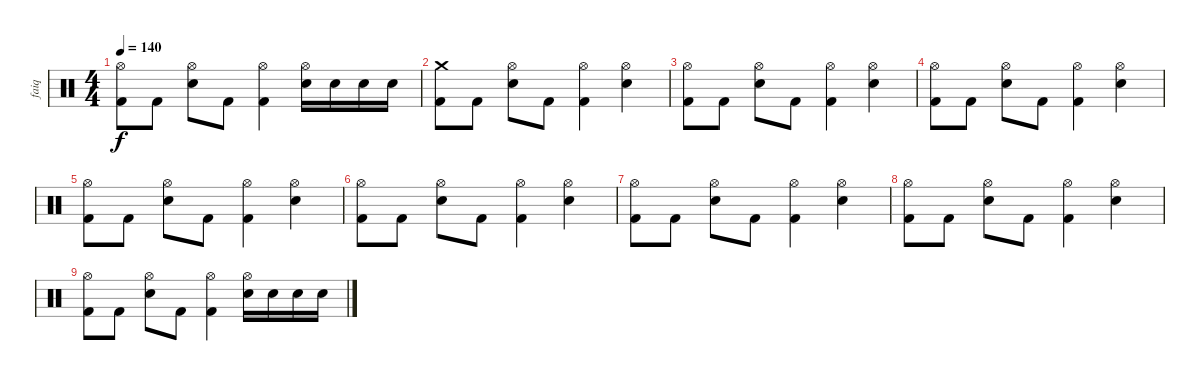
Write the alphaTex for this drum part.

\track ("faiq" "faiq") {instrument percussion}
\staff {score}
\articulation defaults
\ts (4 4)
\tempo 140
\clef neutral
\ks c
("Hi-Hat (open)" "Kick (hit) 2").8{dy f} "Kick (hit) 2".8 ("Hi-Hat (open)" "Electric Snare (hit)").8 "Kick (hit) 2".8 ("Hi-Hat (open)" "Kick (hit) 2").4 ("Hi-Hat (open)" "Electric Snare (hit)").16 "Electric Snare (hit)".16 "Electric Snare (hit)".16 "Electric Snare (hit)".16 |
("Crash medium (hit)" "Kick (hit) 2").8 "Kick (hit) 2".8 ("Hi-Hat (open)" "Electric Snare (hit)").8 "Kick (hit) 2".8 ("Hi-Hat (open)" "Kick (hit) 2").4 ("Hi-Hat (open)" "Electric Snare (hit)").4 |
("Hi-Hat (open)" "Kick (hit) 2").8 "Kick (hit) 2".8 ("Hi-Hat (open)" "Electric Snare (hit)").8 "Kick (hit) 2".8 ("Hi-Hat (open)" "Kick (hit) 2").4 ("Hi-Hat (open)" "Electric Snare (hit)").4 |
("Hi-Hat (open)" "Kick (hit) 2").8 "Kick (hit) 2".8 ("Hi-Hat (open)" "Electric Snare (hit)").8 "Kick (hit) 2".8 ("Hi-Hat (open)" "Kick (hit) 2").4 ("Hi-Hat (open)" "Electric Snare (hit)").4 |
("Hi-Hat (open)" "Kick (hit) 2").8 "Kick (hit) 2".8 ("Hi-Hat (open)" "Electric Snare (hit)").8 "Kick (hit) 2".8 ("Hi-Hat (open)" "Kick (hit) 2").4 ("Hi-Hat (open)" "Electric Snare (hit)").4 |
("Hi-Hat (open)" "Kick (hit) 2").8 "Kick (hit) 2".8 ("Hi-Hat (open)" "Electric Snare (hit)").8 "Kick (hit) 2".8 ("Hi-Hat (open)" "Kick (hit) 2").4 ("Hi-Hat (open)" "Electric Snare (hit)").4 |
("Hi-Hat (open)" "Kick (hit) 2").8 "Kick (hit) 2".8 ("Hi-Hat (open)" "Electric Snare (hit)").8 "Kick (hit) 2".8 ("Hi-Hat (open)" "Kick (hit) 2").4 ("Hi-Hat (open)" "Electric Snare (hit)").4 |
("Hi-Hat (open)" "Kick (hit) 2").8 "Kick (hit) 2".8 ("Hi-Hat (open)" "Electric Snare (hit)").8 "Kick (hit) 2".8 ("Hi-Hat (open)" "Kick (hit) 2").4 ("Hi-Hat (open)" "Electric Snare (hit)").4 |
("Hi-Hat (open)" "Kick (hit) 2").8 "Kick (hit) 2".8 ("Hi-Hat (open)" "Electric Snare (hit)").8 "Kick (hit) 2".8 ("Hi-Hat (open)" "Kick (hit) 2").4 ("Hi-Hat (open)" "Electric Snare (hit)").16 "Electric Snare (hit)".16 "Electric Snare (hit)".16 "Electric Snare (hit)".16
